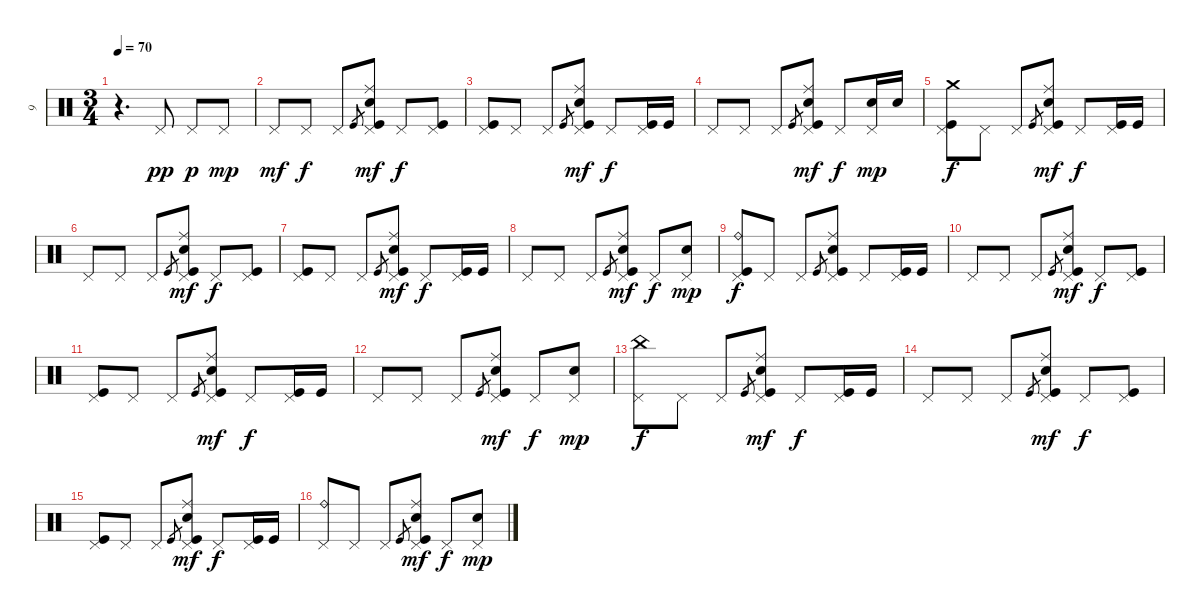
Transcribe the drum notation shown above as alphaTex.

\track ("9" "9") {instrument percussion}
\staff {score}
\articulation defaults
\ts (3 4)
\tempo 70
\clef neutral
\ks c
r.4{d dy pp} "Pedal Hi-Hat (hit)".8 "Pedal Hi-Hat (hit)".8{dy p} "Pedal Hi-Hat (hit)".8{dy mp} |
"Pedal Hi-Hat (hit)".8{dy mf} "Pedal Hi-Hat (hit)".8{dy f} "Pedal Hi-Hat (hit)".8 "Kick (hit)".8{gr} ("Snare (hit) 2" "Ride (middle)" "Kick (hit)" "Pedal Hi-Hat (hit)").8{dy mf} "Pedal Hi-Hat (hit)".8{dy f} ("Kick (hit)" "Pedal Hi-Hat (hit)").8 |
("Kick (hit)" "Pedal Hi-Hat (hit)").8 "Pedal Hi-Hat (hit)".8 "Pedal Hi-Hat (hit)".8 "Kick (hit)".8{gr} ("Snare (hit) 2" "Ride (middle)" "Kick (hit)" "Pedal Hi-Hat (hit)").8{dy mf} "Pedal Hi-Hat (hit)".8{dy f} ("Kick (hit)" "Pedal Hi-Hat (hit)").16 "Kick (hit)".16 |
"Pedal Hi-Hat (hit)".8 "Pedal Hi-Hat (hit)".8 "Pedal Hi-Hat (hit)".8 "Kick (hit)".8{gr} ("Snare (hit) 2" "Ride (middle)" "Kick (hit)" "Pedal Hi-Hat (hit)").8{dy mf} "Pedal Hi-Hat (hit)".8{dy f} ("Snare (hit) 2" "Pedal Hi-Hat (hit)").16{dy mp} "Snare (hit) 2".16 |
("Kick (hit)" "Crash medium (hit)" "Pedal Hi-Hat (hit)").8{dy f} "Pedal Hi-Hat (hit)".8 "Pedal Hi-Hat (hit)".8 "Kick (hit)".8{gr} ("Snare (hit) 2" "Ride (middle)" "Kick (hit)" "Pedal Hi-Hat (hit)").8{dy mf} "Pedal Hi-Hat (hit)".8{dy f} ("Kick (hit)" "Pedal Hi-Hat (hit)").16 "Kick (hit)".16 |
"Pedal Hi-Hat (hit)".8 "Pedal Hi-Hat (hit)".8 "Pedal Hi-Hat (hit)".8 "Kick (hit)".8{gr} ("Snare (hit) 2" "Ride (middle)" "Kick (hit)" "Pedal Hi-Hat (hit)").8{dy mf} "Pedal Hi-Hat (hit)".8{dy f} ("Kick (hit)" "Pedal Hi-Hat (hit)").8 |
("Kick (hit)" "Pedal Hi-Hat (hit)").8 "Pedal Hi-Hat (hit)".8 "Pedal Hi-Hat (hit)".8 "Kick (hit)".8{gr} ("Snare (hit) 2" "Ride (middle)" "Kick (hit)" "Pedal Hi-Hat (hit)").8{dy mf} "Pedal Hi-Hat (hit)".8{dy f} ("Kick (hit)" "Pedal Hi-Hat (hit)").16 "Kick (hit)".16 |
"Pedal Hi-Hat (hit)".8 "Pedal Hi-Hat (hit)".8 "Pedal Hi-Hat (hit)".8 "Kick (hit)".8{gr} ("Snare (hit) 2" "Ride (middle)" "Kick (hit)" "Pedal Hi-Hat (hit)").8{dy mf} "Pedal Hi-Hat (hit)".8{dy f} ("Snare (hit) 2" "Pedal Hi-Hat (hit)").8{dy mp} |
("Ride (bell)" "Kick (hit)" "Pedal Hi-Hat (hit)").8{dy f} "Pedal Hi-Hat (hit)".8 "Pedal Hi-Hat (hit)".8 "Kick (hit)".8{gr} ("Snare (hit) 2" "Ride (middle)" "Kick (hit)" "Pedal Hi-Hat (hit)").8 "Pedal Hi-Hat (hit)".8 ("Kick (hit)" "Pedal Hi-Hat (hit)").16 "Kick (hit)".16 |
"Pedal Hi-Hat (hit)".8 "Pedal Hi-Hat (hit)".8 "Pedal Hi-Hat (hit)".8 "Kick (hit)".8{gr} ("Snare (hit) 2" "Ride (middle)" "Kick (hit)" "Pedal Hi-Hat (hit)").8{dy mf} "Pedal Hi-Hat (hit)".8{dy f} ("Kick (hit)" "Pedal Hi-Hat (hit)").8 |
("Kick (hit)" "Pedal Hi-Hat (hit)").8 "Pedal Hi-Hat (hit)".8 "Pedal Hi-Hat (hit)".8 "Kick (hit)".8{gr} ("Snare (hit) 2" "Ride (middle)" "Kick (hit)" "Pedal Hi-Hat (hit)").8{dy mf} "Pedal Hi-Hat (hit)".8{dy f} ("Kick (hit)" "Pedal Hi-Hat (hit)").16 "Kick (hit)".16 |
"Pedal Hi-Hat (hit)".8 "Pedal Hi-Hat (hit)".8 "Pedal Hi-Hat (hit)".8 "Kick (hit)".8{gr} ("Snare (hit) 2" "Ride (middle)" "Kick (hit)" "Pedal Hi-Hat (hit)").8{dy mf} "Pedal Hi-Hat (hit)".8{dy f} ("Snare (hit) 2" "Pedal Hi-Hat (hit)").8{dy mp} |
("China (hit)" "Pedal Hi-Hat (hit)").8{dy f} "Pedal Hi-Hat (hit)".8 "Pedal Hi-Hat (hit)".8 "Kick (hit)".8{gr} ("Snare (hit) 2" "Ride (middle)" "Kick (hit)" "Pedal Hi-Hat (hit)").8{dy mf} "Pedal Hi-Hat (hit)".8{dy f} ("Kick (hit)" "Pedal Hi-Hat (hit)").16 "Kick (hit)".16 |
"Pedal Hi-Hat (hit)".8 "Pedal Hi-Hat (hit)".8 "Pedal Hi-Hat (hit)".8 "Kick (hit)".8{gr} ("Snare (hit) 2" "Ride (middle)" "Kick (hit)" "Pedal Hi-Hat (hit)").8{dy mf} "Pedal Hi-Hat (hit)".8{dy f} ("Kick (hit)" "Pedal Hi-Hat (hit)").8 |
("Kick (hit)" "Pedal Hi-Hat (hit)").8 "Pedal Hi-Hat (hit)".8 "Pedal Hi-Hat (hit)".8 "Kick (hit)".8{gr} ("Snare (hit) 2" "Ride (middle)" "Kick (hit)" "Pedal Hi-Hat (hit)").8{dy mf} "Pedal Hi-Hat (hit)".8{dy f} ("Kick (hit)" "Pedal Hi-Hat (hit)").16 "Kick (hit)".16 |
("Ride (bell)" "Pedal Hi-Hat (hit)").8 "Pedal Hi-Hat (hit)".8 "Pedal Hi-Hat (hit)".8 "Kick (hit)".8{gr} ("Snare (hit) 2" "Ride (middle)" "Kick (hit)" "Pedal Hi-Hat (hit)").8{dy mf} "Pedal Hi-Hat (hit)".8{dy f} ("Snare (hit) 2" "Pedal Hi-Hat (hit)").8{dy mp}
